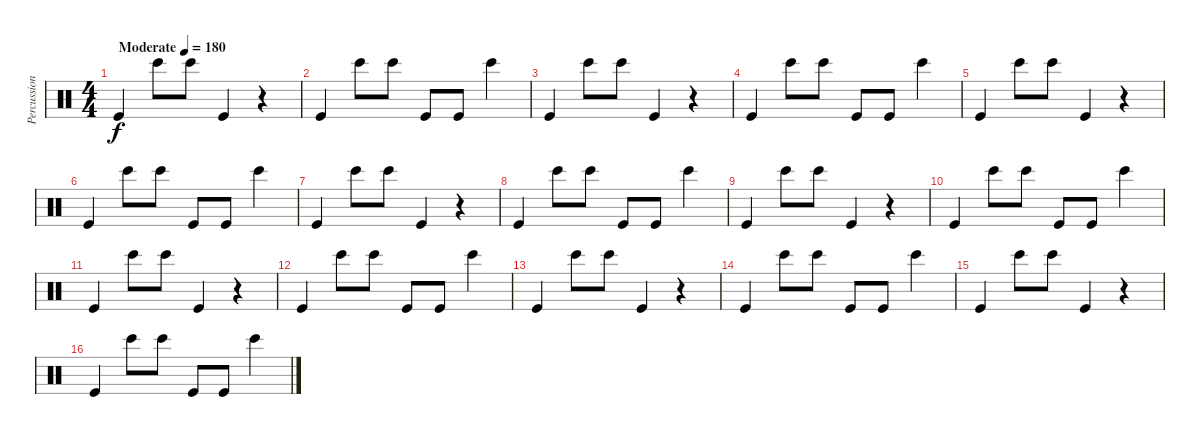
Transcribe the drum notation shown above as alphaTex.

\track ("Percussion" "Percussion") {instrument percussion}
\staff {score}
\articulation defaults
\ts (4 4)
\tempo (180 "Moderate")
\clef neutral
\ks c "Kick (hit)".4{dy f} "Bongo High (hit)".8 "Bongo High (hit)".8 "Kick (hit)".4
r.4 |
"Kick (hit)".4 "Bongo High (hit)".8 "Bongo High (hit)".8 "Kick (hit)".8 "Kick (hit)".8 "Bongo High (hit)".4 |
"Kick (hit)".4 "Bongo High (hit)".8 "Bongo High (hit)".8 "Kick (hit)".4 r.4 |
"Kick (hit)".4 "Bongo High (hit)".8 "Bongo High (hit)".8 "Kick (hit)".8 "Kick (hit)".8 "Bongo High (hit)".4 |
"Kick (hit)".4 "Bongo High (hit)".8 "Bongo High (hit)".8 "Kick (hit)".4 r.4 |
"Kick (hit)".4 "Bongo High (hit)".8 "Bongo High (hit)".8 "Kick (hit)".8 "Kick (hit)".8 "Bongo High (hit)".4 |
"Kick (hit)".4 "Bongo High (hit)".8 "Bongo High (hit)".8 "Kick (hit)".4 r.4 |
"Kick (hit)".4 "Bongo High (hit)".8 "Bongo High (hit)".8 "Kick (hit)".8 "Kick (hit)".8 "Bongo High (hit)".4 |
"Kick (hit)".4 "Bongo High (hit)".8 "Bongo High (hit)".8 "Kick (hit)".4 r.4 |
"Kick (hit)".4 "Bongo High (hit)".8 "Bongo High (hit)".8 "Kick (hit)".8 "Kick (hit)".8 "Bongo High (hit)".4 |
"Kick (hit)".4 "Bongo High (hit)".8 "Bongo High (hit)".8 "Kick (hit)".4 r.4 |
"Kick (hit)".4 "Bongo High (hit)".8 "Bongo High (hit)".8 "Kick (hit)".8 "Kick (hit)".8 "Bongo High (hit)".4 |
"Kick (hit)".4 "Bongo High (hit)".8 "Bongo High (hit)".8 "Kick (hit)".4 r.4 |
"Kick (hit)".4 "Bongo High (hit)".8 "Bongo High (hit)".8 "Kick (hit)".8 "Kick (hit)".8 "Bongo High (hit)".4 |
"Kick (hit)".4 "Bongo High (hit)".8 "Bongo High (hit)".8 "Kick (hit)".4 r.4 |
"Kick (hit)".4 "Bongo High (hit)".8 "Bongo High (hit)".8 "Kick (hit)".8 "Kick (hit)".8 "Bongo High (hit)".4
